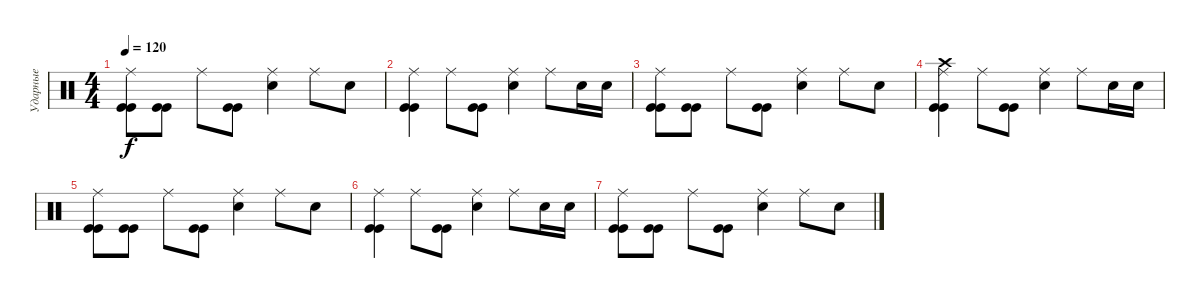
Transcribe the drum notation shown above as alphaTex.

\track ("Ударные" "Ударные") {instrument percussion}
\staff {score}
\articulation defaults
\ts (4 4)
\tempo 120
\clef neutral
\ks c
("Ride (middle)" "Kick (hit)" "Kick (hit)").8{dy f} ("Kick (hit)" "Kick (hit)").8 "Ride (middle)".8 ("Kick (hit)" "Kick (hit)").8 ("Ride (middle)" "Electric Snare (hit)").4 "Ride (middle)".8 "Electric Snare (hit)".8 |
("Ride (middle)" "Kick (hit)" "Kick (hit)").4 "Ride (middle)".8 ("Kick (hit)" "Kick (hit)").8 ("Ride (middle)" "Electric Snare (hit)").4 "Ride (middle)".8 "Electric Snare (hit)".16 "Electric Snare (hit)".16 |
("Ride (middle)" "Kick (hit)" "Kick (hit)").8 ("Kick (hit)" "Kick (hit)").8 "Ride (middle)".8 ("Kick (hit)" "Kick (hit)").8 ("Ride (middle)" "Electric Snare (hit)").4 "Ride (middle)".8 "Electric Snare (hit)".8 |
("Crash high (hit)" "Ride (middle)" "Kick (hit)" "Kick (hit)").4 "Ride (middle)".8 ("Kick (hit)" "Kick (hit)").8 ("Ride (middle)" "Electric Snare (hit)").4 "Ride (middle)".8 "Electric Snare (hit)".16 "Electric Snare (hit)".16 |
("Ride (middle)" "Kick (hit)" "Kick (hit)").8 ("Kick (hit)" "Kick (hit)").8 "Ride (middle)".8 ("Kick (hit)" "Kick (hit)").8 ("Ride (middle)" "Electric Snare (hit)").4 "Ride (middle)".8 "Electric Snare (hit)".8 |
("Ride (middle)" "Kick (hit)" "Kick (hit)").4 "Ride (middle)".8 ("Kick (hit)" "Kick (hit)").8 ("Ride (middle)" "Electric Snare (hit)").4 "Ride (middle)".8 "Electric Snare (hit)".16 "Electric Snare (hit)".16 |
("Ride (middle)" "Kick (hit)" "Kick (hit)").8 ("Kick (hit)" "Kick (hit)").8 "Ride (middle)".8 ("Kick (hit)" "Kick (hit)").8 ("Ride (middle)" "Electric Snare (hit)").4 "Ride (middle)".8 "Electric Snare (hit)".8
